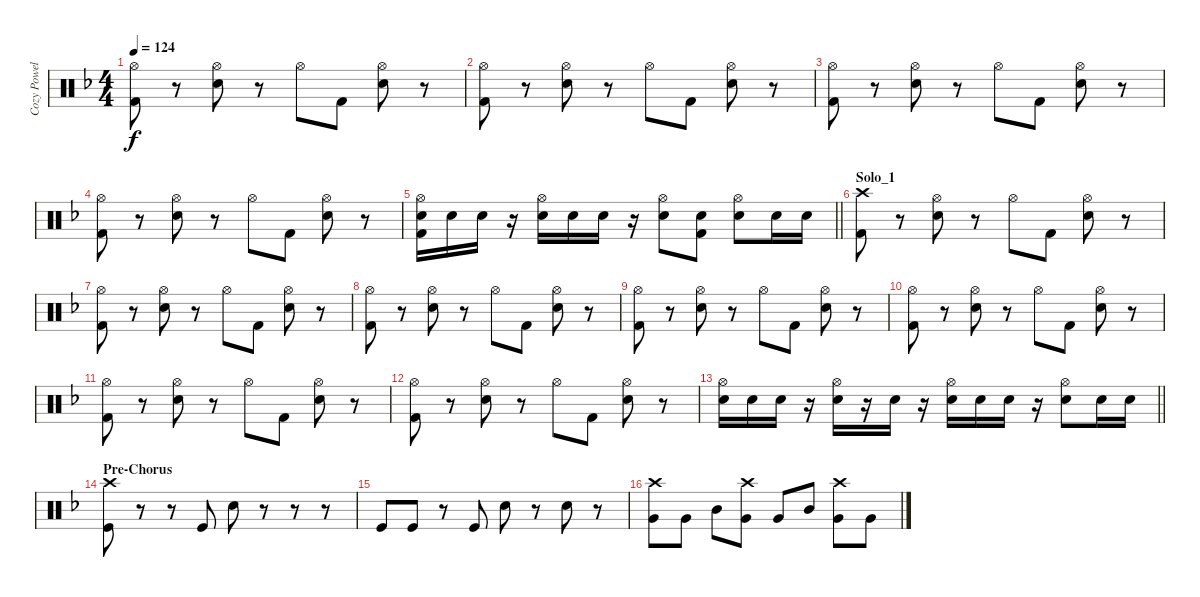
\track ("Cozy Powell" "Cozy Powel") {instrument percussion}
\staff {score}
\articulation defaults
\ts (4 4)
\tempo 124
\clef neutral
\ks f
("Hi-Hat (open)" "Kick (hit) 2").8{dy f} r.8 ("Hi-Hat (open)" "Snare (hit) 2").8 r.8 "Hi-Hat (open)".8 "Kick (hit) 2".8 ("Hi-Hat (open)" "Snare (hit) 2").8 r.8 |
("Hi-Hat (open)" "Kick (hit) 2").8 r.8 ("Hi-Hat (open)" "Snare (hit) 2").8 r.8 "Hi-Hat (open)".8 "Kick (hit) 2".8 ("Hi-Hat (open)" "Snare (hit) 2").8 r.8 |
("Hi-Hat (open)" "Kick (hit) 2").8 r.8 ("Hi-Hat (open)" "Snare (hit) 2").8 r.8 "Hi-Hat (open)".8 "Kick (hit) 2".8 ("Hi-Hat (open)" "Snare (hit) 2").8 r.8 |
("Hi-Hat (open)" "Kick (hit) 2").8 r.8 ("Hi-Hat (open)" "Snare (hit) 2").8 r.8 "Hi-Hat (open)".8 "Kick (hit) 2".8 ("Hi-Hat (open)" "Snare (hit) 2").8 r.8 |
\barLineRight lightlight
("Hi-Hat (open)" "Kick (hit) 2" "Snare (hit) 2").16 "Snare (hit) 2".16 "Snare (hit) 2".16 r.16 ("Hi-Hat (open)" "Snare (hit) 2").16 "Snare (hit) 2".16 "Snare (hit) 2".16 r.16 ("Hi-Hat (open)" "Snare (hit) 2").8 ("Kick (hit) 2" "Snare (hit) 2").8 ("Hi-Hat (open)" "Snare (hit) 2").8 "Snare (hit) 2".16 "Snare (hit) 2".16 |
\section ("" "Solo_1")
("Crash high (hit)" "Kick (hit) 2").8 r.8 ("Hi-Hat (open)" "Snare (hit) 2").8 r.8 "Hi-Hat (open)".8 "Kick (hit) 2".8 ("Hi-Hat (open)" "Snare (hit) 2").8 r.8 |
("Hi-Hat (open)" "Kick (hit) 2").8 r.8 ("Hi-Hat (open)" "Snare (hit) 2").8 r.8 "Hi-Hat (open)".8 "Kick (hit) 2".8 ("Hi-Hat (open)" "Snare (hit) 2").8 r.8 |
("Hi-Hat (open)" "Kick (hit) 2").8 r.8 ("Hi-Hat (open)" "Snare (hit) 2").8 r.8 "Hi-Hat (open)".8 "Kick (hit) 2".8 ("Hi-Hat (open)" "Snare (hit) 2").8 r.8 |
("Hi-Hat (open)" "Kick (hit) 2").8 r.8 ("Hi-Hat (open)" "Snare (hit) 2").8 r.8 "Hi-Hat (open)".8 "Kick (hit) 2".8 ("Hi-Hat (open)" "Snare (hit) 2").8 r.8 |
("Hi-Hat (open)" "Kick (hit) 2").8 r.8 ("Hi-Hat (open)" "Snare (hit) 2").8 r.8 "Hi-Hat (open)".8 "Kick (hit) 2".8 ("Hi-Hat (open)" "Snare (hit) 2").8 r.8 |
("Hi-Hat (open)" "Kick (hit) 2").8 r.8 ("Hi-Hat (open)" "Snare (hit) 2").8 r.8 "Hi-Hat (open)".8 "Kick (hit) 2".8 ("Hi-Hat (open)" "Snare (hit) 2").8 r.8 |
("Hi-Hat (open)" "Kick (hit) 2").8 r.8 ("Hi-Hat (open)" "Snare (hit) 2").8 r.8 "Hi-Hat (open)".8 "Kick (hit) 2".8 ("Hi-Hat (open)" "Snare (hit) 2").8 r.8 |
\barLineRight lightlight
("Hi-Hat (open)" "Snare (hit) 2").16 "Snare (hit) 2".16 "Snare (hit) 2".16 r.16 ("Hi-Hat (open)" "Snare (hit) 2").16 r.16 "Snare (hit) 2".16 r.16 ("Hi-Hat (open)" "Snare (hit) 2").16 "Snare (hit) 2".16 "Snare (hit) 2".16 r.16 ("Hi-Hat (open)" "Snare (hit) 2").8 "Snare (hit) 2".16 "Snare (hit) 2".16 |
\section ("" "Pre-Chorus")
("Kick (hit)" "Crash high (hit)").8 r.8 r.8 "Kick (hit)".8 "Snare (hit) 2".8 r.8 r.8 r.8 |
"Kick (hit)".8 "Kick (hit)".8 r.8 "Kick (hit)".8 "Snare (hit) 2".8 r.8 "Snare (hit) 2".8 r.8 |
("Very Low Tom (hit)" "Crash high (hit)").8 "Very Low Tom (hit)".8 "Mid Tom (hit)".8 ("Very Low Tom (hit)" "Crash high (hit)").8 "Very Low Tom (hit)".8 "Mid Tom (hit)".8 ("Very Low Tom (hit)" "Crash high (hit)").8 "Very Low Tom (hit)".8
